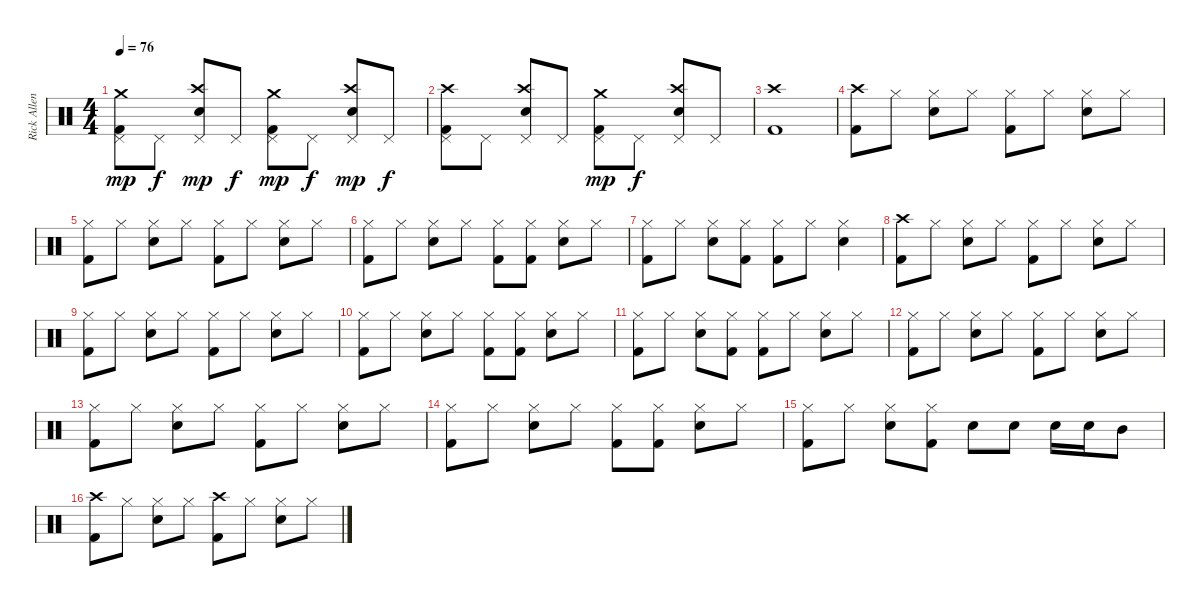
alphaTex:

\track ("Rick Allen" "Rick Allen") {instrument percussion}
\staff {score}
\articulation defaults
\ts (4 4)
\tempo 76
\clef neutral
\ks c
("Crash medium (hit)" "Pedal Hi-Hat (hit)" "Kick (hit) 2").8{dy mp} "Pedal Hi-Hat (hit)".8{dy f} ("Crash high (hit)" "Pedal Hi-Hat (hit)" "Snare (hit) 2").8{dy mp} "Pedal Hi-Hat (hit)".8{dy f} ("Crash medium (hit)" "Pedal Hi-Hat (hit)" "Kick (hit) 2").8{dy mp} "Pedal Hi-Hat (hit)".8{dy f} ("Crash high (hit)" "Pedal Hi-Hat (hit)" "Snare (hit) 2").8{dy mp} "Pedal Hi-Hat (hit)".8{dy f} |
("Crash high (hit)" "Pedal Hi-Hat (hit)" "Kick (hit) 2").8 "Pedal Hi-Hat (hit)".8 ("Crash high (hit)" "Pedal Hi-Hat (hit)" "Snare (hit) 2").8 "Pedal Hi-Hat (hit)".8 ("Crash medium (hit)" "Pedal Hi-Hat (hit)" "Kick (hit) 2").8{dy mp} "Pedal Hi-Hat (hit)".8{dy f} ("Crash high (hit)" "Pedal Hi-Hat (hit)" "Snare (hit) 2").8 "Pedal Hi-Hat (hit)".8 |
("Crash high (hit)" "Kick (hit) 2").1 |
("Crash high (hit)" "Kick (hit) 2").8 "Hi-Hat (closed)".8 ("Hi-Hat (closed)" "Snare (hit) 2").8 "Hi-Hat (closed)".8 ("Hi-Hat (closed)" "Kick (hit) 2").8 "Hi-Hat (closed)".8 ("Hi-Hat (closed)" "Snare (hit) 2").8 "Hi-Hat (closed)".8 |
("Hi-Hat (closed)" "Kick (hit) 2").8 "Hi-Hat (closed)".8 ("Hi-Hat (closed)" "Snare (hit) 2").8 "Hi-Hat (closed)".8 ("Hi-Hat (closed)" "Kick (hit) 2").8 "Hi-Hat (closed)".8 ("Hi-Hat (closed)" "Snare (hit) 2").8 "Hi-Hat (closed)".8 |
("Hi-Hat (closed)" "Kick (hit) 2").8 "Hi-Hat (closed)".8 ("Hi-Hat (closed)" "Snare (hit) 2").8 "Hi-Hat (closed)".8 ("Hi-Hat (closed)" "Kick (hit) 2").8 ("Hi-Hat (closed)" "Kick (hit) 2").8 ("Hi-Hat (closed)" "Snare (hit) 2").8 "Hi-Hat (closed)".8 |
("Hi-Hat (closed)" "Kick (hit) 2").8 "Hi-Hat (closed)".8 ("Hi-Hat (closed)" "Snare (hit) 2").8 ("Hi-Hat (closed)" "Kick (hit) 2").8 ("Hi-Hat (closed)" "Kick (hit) 2").8 "Hi-Hat (closed)".8 ("Hi-Hat (closed)" "Snare (hit) 2").4 |
("Crash high (hit)" "Kick (hit) 2").8 "Hi-Hat (closed)".8 ("Hi-Hat (closed)" "Snare (hit) 2").8 "Hi-Hat (closed)".8 ("Hi-Hat (closed)" "Kick (hit) 2").8 "Hi-Hat (closed)".8 ("Hi-Hat (closed)" "Snare (hit) 2").8 "Hi-Hat (closed)".8 |
("Hi-Hat (closed)" "Kick (hit) 2").8 "Hi-Hat (closed)".8 ("Hi-Hat (closed)" "Snare (hit) 2").8 "Hi-Hat (closed)".8 ("Hi-Hat (closed)" "Kick (hit) 2").8 "Hi-Hat (closed)".8 ("Hi-Hat (closed)" "Snare (hit) 2").8 "Hi-Hat (closed)".8 |
("Hi-Hat (closed)" "Kick (hit) 2").8 "Hi-Hat (closed)".8 ("Hi-Hat (closed)" "Snare (hit) 2").8 "Hi-Hat (closed)".8 ("Hi-Hat (closed)" "Kick (hit) 2").8 ("Hi-Hat (closed)" "Kick (hit) 2").8 ("Hi-Hat (closed)" "Snare (hit) 2").8 "Hi-Hat (closed)".8 |
("Hi-Hat (closed)" "Kick (hit) 2").8 "Hi-Hat (closed)".8 ("Hi-Hat (closed)" "Snare (hit) 2").8 ("Hi-Hat (closed)" "Kick (hit) 2").8 ("Hi-Hat (closed)" "Kick (hit) 2").8 "Hi-Hat (closed)".8 ("Hi-Hat (closed)" "Snare (hit) 2").8 "Hi-Hat (closed)".8 |
("Hi-Hat (closed)" "Kick (hit) 2").8 "Hi-Hat (closed)".8 ("Hi-Hat (closed)" "Snare (hit) 2").8 "Hi-Hat (closed)".8 ("Hi-Hat (closed)" "Kick (hit) 2").8 "Hi-Hat (closed)".8 ("Hi-Hat (closed)" "Snare (hit) 2").8 "Hi-Hat (closed)".8 |
("Hi-Hat (closed)" "Kick (hit) 2").8 "Hi-Hat (closed)".8 ("Hi-Hat (closed)" "Snare (hit) 2").8 "Hi-Hat (closed)".8 ("Hi-Hat (closed)" "Kick (hit) 2").8 "Hi-Hat (closed)".8 ("Hi-Hat (closed)" "Snare (hit) 2").8 "Hi-Hat (closed)".8 |
("Hi-Hat (closed)" "Kick (hit) 2").8 "Hi-Hat (closed)".8 ("Hi-Hat (closed)" "Snare (hit) 2").8 "Hi-Hat (closed)".8 ("Hi-Hat (closed)" "Kick (hit) 2").8 ("Hi-Hat (closed)" "Kick (hit) 2").8 ("Hi-Hat (closed)" "Snare (hit) 2").8 "Hi-Hat (closed)".8 |
("Hi-Hat (closed)" "Kick (hit) 2").8 "Hi-Hat (closed)".8 ("Hi-Hat (closed)" "Snare (hit) 2").8 ("Hi-Hat (closed)" "Kick (hit) 2").8 "Snare (hit) 2".8 "Snare (hit) 2".8 "Snare (hit) 2".16 "Snare (hit) 2".16 "Mid Tom (hit)".8 |
("Crash high (hit)" "Kick (hit) 2").8 "Hi-Hat (closed)".8 ("Hi-Hat (closed)" "Snare (hit) 2").8 "Hi-Hat (closed)".8 ("Crash high (hit)" "Kick (hit) 2").8 "Hi-Hat (closed)".8 ("Hi-Hat (closed)" "Snare (hit) 2").8 "Hi-Hat (closed)".8
